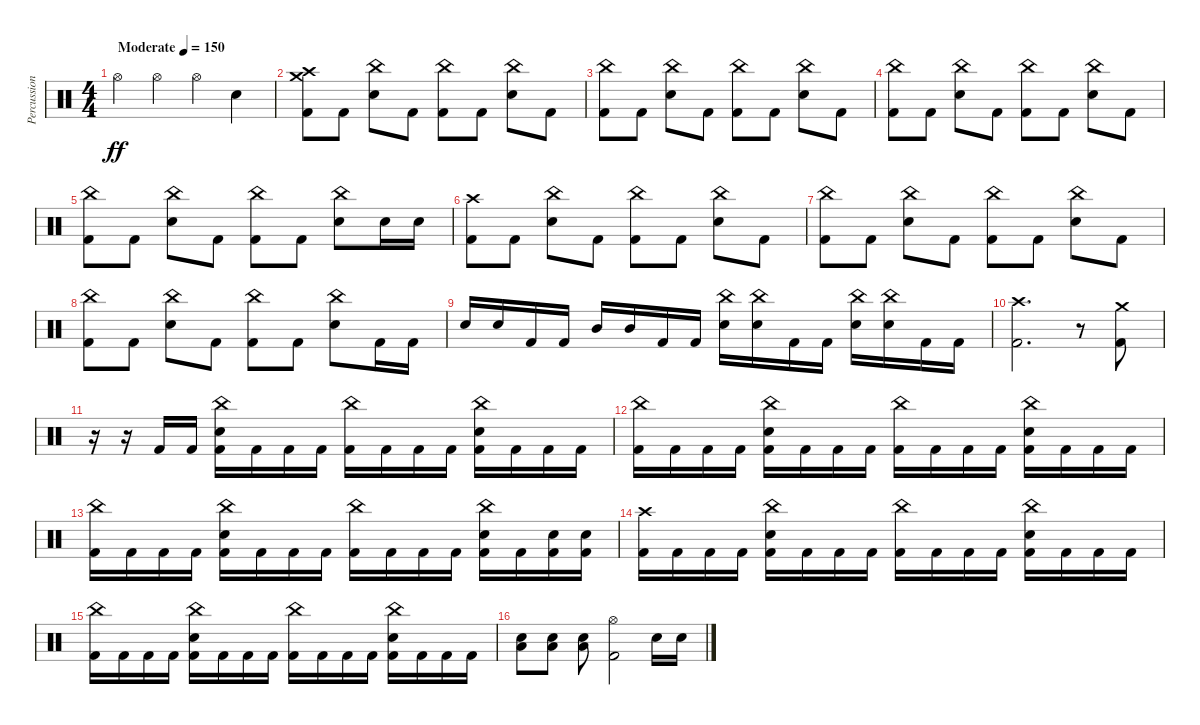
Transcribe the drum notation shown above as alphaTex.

\track ("Percussion" "Percussion") {instrument percussion}
\staff {score}
\articulation defaults
\ts (4 4)
\tempo (150 "Moderate")
\clef neutral
\ks c "Hi-Hat (open)".4{dy ff} "Hi-Hat (open)".4 "Hi-Hat (open)".4 "Snare (hit) 2".4
|
("Crash high (hit)" "Crash medium (hit)" "Kick (hit) 2").8 "Kick (hit) 2".8 ("China (hit)" "Snare (hit) 2").8 "Kick (hit) 2".8 ("China (hit)" "Kick (hit) 2").8 "Kick (hit) 2".8 ("China (hit)" "Snare (hit) 2").8 "Kick (hit) 2".8 |
("China (hit)" "Kick (hit) 2").8 "Kick (hit) 2".8 ("China (hit)" "Snare (hit) 2").8 "Kick (hit) 2".8 ("China (hit)" "Kick (hit) 2").8 "Kick (hit) 2".8 ("China (hit)" "Snare (hit) 2").8 "Kick (hit) 2".8 |
("China (hit)" "Kick (hit) 2").8 "Kick (hit) 2".8 ("China (hit)" "Snare (hit) 2").8 "Kick (hit) 2".8 ("China (hit)" "Kick (hit) 2").8 "Kick (hit) 2".8 ("China (hit)" "Snare (hit) 2").8 "Kick (hit) 2".8 |
("China (hit)" "Kick (hit) 2").8 "Kick (hit) 2".8 ("China (hit)" "Snare (hit) 2").8 "Kick (hit) 2".8 ("China (hit)" "Kick (hit) 2").8 "Kick (hit) 2".8 ("China (hit)" "Snare (hit) 2").8 "Snare (hit) 2".16 "Snare (hit) 2".16 |
("Crash high (hit)" "Kick (hit) 2").8 "Kick (hit) 2".8 ("China (hit)" "Snare (hit) 2").8 "Kick (hit) 2".8 ("China (hit)" "Kick (hit) 2").8 "Kick (hit) 2".8 ("China (hit)" "Snare (hit) 2").8 "Kick (hit) 2".8 |
("China (hit)" "Kick (hit) 2").8 "Kick (hit) 2".8 ("China (hit)" "Snare (hit) 2").8 "Kick (hit) 2".8 ("China (hit)" "Kick (hit) 2").8 "Kick (hit) 2".8 ("China (hit)" "Snare (hit) 2").8 "Kick (hit) 2".8 |
("China (hit)" "Kick (hit) 2").8 "Kick (hit) 2".8 ("China (hit)" "Snare (hit) 2").8 "Kick (hit) 2".8 ("China (hit)" "Kick (hit) 2").8 "Kick (hit) 2".8 ("China (hit)" "Snare (hit) 2").8 "Kick (hit) 2".16 "Kick (hit) 2".16 |
"Snare (hit) 2".16 "Snare (hit) 2".16 "Kick (hit) 2".16 "Kick (hit) 2".16 "Mid Tom (hit)".16 "Mid Tom (hit)".16 "Kick (hit) 2".16 "Kick (hit) 2".16 ("China (hit)" "Snare (hit) 2").16 ("China (hit)" "Snare (hit) 2").16 "Kick (hit) 2".16 "Kick (hit) 2".16 ("China (hit)" "Snare (hit) 2").16 ("China (hit)" "Snare (hit) 2").16 "Kick (hit) 2".16 "Kick (hit) 2".16 |
("Crash high (hit)" "Kick (hit) 2").2{d} r.8 ("Crash medium (hit)" "Kick (hit) 2").8 |
r.16 r.16 "Kick (hit) 2".16 "Kick (hit) 2".16 ("China (hit)" "Snare (hit) 2" "Kick (hit) 2").16 "Kick (hit) 2".16 "Kick (hit) 2".16 "Kick (hit) 2".16 ("China (hit)" "Kick (hit) 2").16 "Kick (hit) 2".16 "Kick (hit) 2".16 "Kick (hit) 2".16 ("China (hit)" "Snare (hit) 2" "Kick (hit) 2").16 "Kick (hit) 2".16 "Kick (hit) 2".16 "Kick (hit) 2".16 |
("China (hit)" "Kick (hit) 2").16 "Kick (hit) 2".16 "Kick (hit) 2".16 "Kick (hit) 2".16 ("China (hit)" "Snare (hit) 2" "Kick (hit) 2").16 "Kick (hit) 2".16 "Kick (hit) 2".16 "Kick (hit) 2".16 ("China (hit)" "Kick (hit) 2").16 "Kick (hit) 2".16 "Kick (hit) 2".16 "Kick (hit) 2".16 ("China (hit)" "Snare (hit) 2" "Kick (hit) 2").16 "Kick (hit) 2".16 "Kick (hit) 2".16 "Kick (hit) 2".16 |
("China (hit)" "Kick (hit) 2").16 "Kick (hit) 2".16 "Kick (hit) 2".16 "Kick (hit) 2".16 ("China (hit)" "Snare (hit) 2" "Kick (hit) 2").16 "Kick (hit) 2".16 "Kick (hit) 2".16 "Kick (hit) 2".16 ("China (hit)" "Kick (hit) 2").16 "Kick (hit) 2".16 "Kick (hit) 2".16 "Kick (hit) 2".16 ("China (hit)" "Snare (hit) 2" "Kick (hit) 2").16 "Kick (hit) 2".16 ("Snare (hit) 2" "Kick (hit) 2").16 ("Snare (hit) 2" "Kick (hit) 2").16 |
("Crash high (hit)" "Kick (hit) 2").16 "Kick (hit) 2".16 "Kick (hit) 2".16 "Kick (hit) 2".16 ("China (hit)" "Snare (hit) 2" "Kick (hit) 2").16 "Kick (hit) 2".16 "Kick (hit) 2".16 "Kick (hit) 2".16 ("China (hit)" "Kick (hit) 2").16 "Kick (hit) 2".16 "Kick (hit) 2".16 "Kick (hit) 2".16 ("China (hit)" "Snare (hit) 2" "Kick (hit) 2").16 "Kick (hit) 2".16 "Kick (hit) 2".16 "Kick (hit) 2".16 |
("China (hit)" "Kick (hit) 2").16 "Kick (hit) 2".16 "Kick (hit) 2".16 "Kick (hit) 2".16 ("China (hit)" "Snare (hit) 2" "Kick (hit) 2").16 "Kick (hit) 2".16 "Kick (hit) 2".16 "Kick (hit) 2".16 ("China (hit)" "Kick (hit) 2").16 "Kick (hit) 2".16 "Kick (hit) 2".16 "Kick (hit) 2".16 ("China (hit)" "Snare (hit) 2" "Kick (hit) 2").16 "Kick (hit) 2".16 "Kick (hit) 2".16 "Kick (hit) 2".16 |
("Low Tom (hit)" "Snare (hit) 2").8 ("Low Tom (hit)" "Snare (hit) 2").8 ("Low Tom (hit)" "Snare (hit) 2").8 ("Hi-Hat (open)" "Kick (hit) 2").2 "Snare (hit) 2".16 "Snare (hit) 2".16
